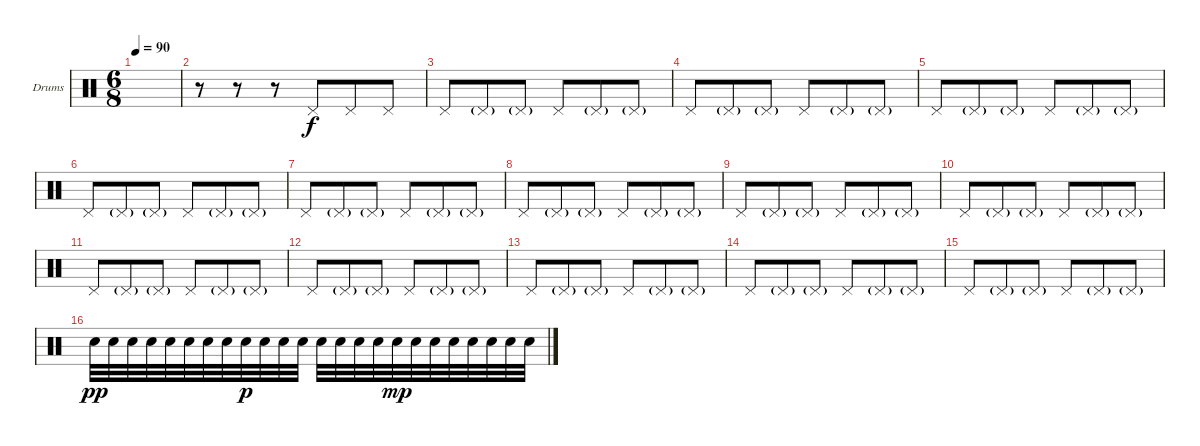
\defaultSystemsLayout 4
\bracketExtendMode groupsimilarinstruments
\firstSystemTrackNameOrientation horizontal
\otherSystemsTrackNameOrientation horizontal
\track ("Drumkit" "Drums") {instrument percussion}
\staff {score}
\articulation defaults
\ts (6 8)
\tempo 90
\clef neutral
\scale
0.333333
\ks c
|
\scale
0.333333 r.8 r.8 r.8 "Pedal Hi-Hat (hit)".8 "Pedal Hi-Hat (hit)".8 "Pedal Hi-Hat (hit)".8 |
\scale
0.333333 "Pedal Hi-Hat (hit)".8 "Pedal Hi-Hat (hit)"{g}.8 "Pedal Hi-Hat (hit)"{g}.8 "Pedal Hi-Hat (hit)".8 "Pedal Hi-Hat (hit)"{g}.8 "Pedal Hi-Hat (hit)"{g}.8 |
\scale
0.333333 "Pedal Hi-Hat (hit)".8 "Pedal Hi-Hat (hit)"{g}.8 "Pedal Hi-Hat (hit)"{g}.8 "Pedal Hi-Hat (hit)".8 "Pedal Hi-Hat (hit)"{g}.8 "Pedal Hi-Hat (hit)"{g}.8 |
\scale
0.333333 "Pedal Hi-Hat (hit)".8 "Pedal Hi-Hat (hit)"{g}.8 "Pedal Hi-Hat (hit)"{g}.8 "Pedal Hi-Hat (hit)".8 "Pedal Hi-Hat (hit)"{g}.8 "Pedal Hi-Hat (hit)"{g}.8 |
\scale
0.333333 "Pedal Hi-Hat (hit)".8 "Pedal Hi-Hat (hit)"{g}.8 "Pedal Hi-Hat (hit)"{g}.8 "Pedal Hi-Hat (hit)".8 "Pedal Hi-Hat (hit)"{g}.8 "Pedal Hi-Hat (hit)"{g}.8 |
\scale
0.333333 "Pedal Hi-Hat (hit)".8 "Pedal Hi-Hat (hit)"{g}.8 "Pedal Hi-Hat (hit)"{g}.8 "Pedal Hi-Hat (hit)".8 "Pedal Hi-Hat (hit)"{g}.8 "Pedal Hi-Hat (hit)"{g}.8 |
\scale
0.333333 "Pedal Hi-Hat (hit)".8 "Pedal Hi-Hat (hit)"{g}.8 "Pedal Hi-Hat (hit)"{g}.8 "Pedal Hi-Hat (hit)".8 "Pedal Hi-Hat (hit)"{g}.8 "Pedal Hi-Hat (hit)"{g}.8 |
\scale
0.333333 "Pedal Hi-Hat (hit)".8 "Pedal Hi-Hat (hit)"{g}.8 "Pedal Hi-Hat (hit)"{g}.8 "Pedal Hi-Hat (hit)".8 "Pedal Hi-Hat (hit)"{g}.8 "Pedal Hi-Hat (hit)"{g}.8 |
\scale
0.333333 "Pedal Hi-Hat (hit)".8 "Pedal Hi-Hat (hit)"{g}.8 "Pedal Hi-Hat (hit)"{g}.8 "Pedal Hi-Hat (hit)".8 "Pedal Hi-Hat (hit)"{g}.8 "Pedal Hi-Hat (hit)"{g}.8 |
\scale
0.333333 "Pedal Hi-Hat (hit)".8 "Pedal Hi-Hat (hit)"{g}.8 "Pedal Hi-Hat (hit)"{g}.8 "Pedal Hi-Hat (hit)".8 "Pedal Hi-Hat (hit)"{g}.8 "Pedal Hi-Hat (hit)"{g}.8 |
\scale
0.333333 "Pedal Hi-Hat (hit)".8 "Pedal Hi-Hat (hit)"{g}.8 "Pedal Hi-Hat (hit)"{g}.8 "Pedal Hi-Hat (hit)".8 "Pedal Hi-Hat (hit)"{g}.8 "Pedal Hi-Hat (hit)"{g}.8 |
\scale
0.333333 "Pedal Hi-Hat (hit)".8 "Pedal Hi-Hat (hit)"{g}.8 "Pedal Hi-Hat (hit)"{g}.8 "Pedal Hi-Hat (hit)".8 "Pedal Hi-Hat (hit)"{g}.8 "Pedal Hi-Hat (hit)"{g}.8 |
\scale
0.333333 "Pedal Hi-Hat (hit)".8 "Pedal Hi-Hat (hit)"{g}.8 "Pedal Hi-Hat (hit)"{g}.8 "Pedal Hi-Hat (hit)".8 "Pedal Hi-Hat (hit)"{g}.8 "Pedal Hi-Hat (hit)"{g}.8 |
\scale
0.333333 "Pedal Hi-Hat (hit)".8 "Pedal Hi-Hat (hit)"{g}.8 "Pedal Hi-Hat (hit)"{g}.8 "Pedal Hi-Hat (hit)".8 "Pedal Hi-Hat (hit)"{g}.8 "Pedal Hi-Hat (hit)"{g}.8 |
\scale
0.333333 "Snare (hit) 2".32{dy pp} "Snare (hit) 2".32 "Snare (hit) 2".32 "Snare (hit) 2".32 "Snare (hit) 2".32 "Snare (hit) 2".32 "Snare (hit) 2".32 "Snare (hit) 2".32 "Snare (hit) 2".32{dy p} "Snare (hit) 2".32 "Snare (hit) 2".32 "Snare (hit) 2".32 "Snare (hit) 2".32 "Snare (hit) 2".32 "Snare (hit) 2".32 "Snare (hit) 2".32 "Snare (hit) 2".32{dy mp} "Snare (hit) 2".32 "Snare (hit) 2".32 "Snare (hit) 2".32 "Snare (hit) 2".32 "Snare (hit) 2".32 "Snare (hit) 2".32 "Snare (hit) 2".32
